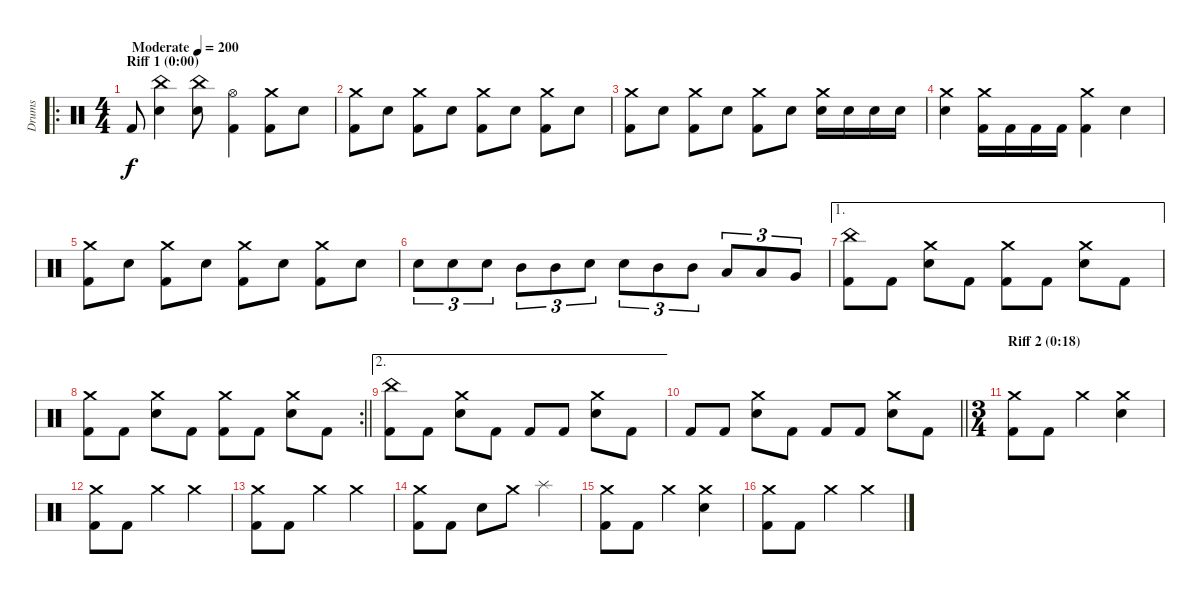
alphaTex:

\track ("Drums" "Drums") {instrument percussion}
\staff {score}
\articulation defaults
\ro
\ts (4 4)
\section ("" "Riff 1 (0:00)")
\tempo (200 "Moderate")
\clef neutral
\ks c "Kick (hit) 2".8{dy f}
("China (hit)" "Electric Snare (hit)").4 ("China (hit)" "Electric Snare (hit)").8 ("Hi-Hat (open)" "Kick (hit) 2").4 ("Crash medium (hit)" "Kick (hit) 2").8 "Electric Snare (hit)".8 |
("Crash medium (hit)" "Kick (hit) 2").8 "Electric Snare (hit)".8 ("Crash medium (hit)" "Kick (hit) 2").8 "Electric Snare (hit)".8 ("Crash medium (hit)" "Kick (hit) 2").8 "Electric Snare (hit)".8 ("Crash medium (hit)" "Kick (hit) 2").8 "Electric Snare (hit)".8 |
("Crash medium (hit)" "Kick (hit) 2").8 "Electric Snare (hit)".8 ("Crash medium (hit)" "Kick (hit) 2").8 "Electric Snare (hit)".8 ("Crash medium (hit)" "Kick (hit) 2").8 "Electric Snare (hit)".8 ("Crash medium (hit)" "Electric Snare (hit)").16 "Electric Snare (hit)".16 "Electric Snare (hit)".16 "Electric Snare (hit)".16 |
("Crash medium (hit)" "Electric Snare (hit)").4 ("Crash medium (hit)" "Kick (hit) 2").16 "Kick (hit) 2".16 "Kick (hit) 2".16 "Kick (hit) 2".16 ("Crash medium (hit)" "Kick (hit) 2").4 "Electric Snare (hit)".4 |
("Crash medium (hit)" "Kick (hit) 2").8 "Electric Snare (hit)".8 ("Crash medium (hit)" "Kick (hit) 2").8 "Electric Snare (hit)".8 ("Crash medium (hit)" "Kick (hit) 2").8 "Electric Snare (hit)".8 ("Crash medium (hit)" "Kick (hit) 2").8 "Electric Snare (hit)".8 |
"Electric Snare (hit)".8{tu (3 2)} "Electric Snare (hit)".8{tu (3 2)} "Electric Snare (hit)".8{tu (3 2)} "Mid Tom (hit)".8{tu (3 2)} "Mid Tom (hit)".8{tu (3 2)} "Electric Snare (hit)".8{tu (3 2)} "Electric Snare (hit)".8{tu (3 2)} "Mid Tom (hit)".8{tu (3 2)} "Mid Tom (hit)".8{tu (3 2)} "Low Tom (hit)".8{tu (3 2)} "Low Tom (hit)".8{tu (3 2)} "Very Low Tom (hit)".8{tu (3 2)} |
\ae 1
("China (hit)" "Kick (hit) 2").8 "Kick (hit) 2".8 ("Crash medium (hit)" "Electric Snare (hit)").8 "Kick (hit) 2".8 ("Crash medium (hit)" "Kick (hit) 2").8 "Kick (hit) 2".8 ("Crash medium (hit)" "Electric Snare (hit)").8 "Kick (hit) 2".8 |
\rc 2
\barLineRight lightlight
("Crash medium (hit)" "Kick (hit) 2").8 "Kick (hit) 2".8 ("Crash medium (hit)" "Electric Snare (hit)").8 "Kick (hit) 2".8 ("Crash medium (hit)" "Kick (hit) 2").8 "Kick (hit) 2".8 ("Crash medium (hit)" "Electric Snare (hit)").8 "Kick (hit) 2".8 |
\ae 2
("China (hit)" "Kick (hit) 2").8 "Kick (hit) 2".8 ("Crash medium (hit)" "Electric Snare (hit)").8 "Kick (hit) 2".8 "Kick (hit) 2".8 "Kick (hit) 2".8 ("Crash medium (hit)" "Electric Snare (hit)").8 "Kick (hit) 2".8 |
\barLineRight lightlight "Kick (hit) 2".8 "Kick (hit) 2".8
("Crash medium (hit)" "Electric Snare (hit)").8 "Kick (hit) 2".8 "Kick (hit) 2".8 "Kick (hit) 2".8 ("Crash medium (hit)" "Electric Snare (hit)").8 "Kick (hit) 2".8 |
\ts (3 4)
\section ("" "Riff 2 (0:18)")
("Crash medium (hit)" "Kick (hit) 2").8 "Kick (hit) 2".8 "Crash medium (hit)".4 ("Crash medium (hit)" "Electric Snare (hit)").4 |
("Crash medium (hit)" "Kick (hit) 2").8 "Kick (hit) 2".8 "Crash medium (hit)".4 "Crash medium (hit)".4 |
("Crash medium (hit)" "Kick (hit) 2").8 "Kick (hit) 2".8 "Crash medium (hit)".4 "Crash medium (hit)".4 |
("Crash medium (hit)" "Kick (hit) 2").8 "Kick (hit) 2".8 "Electric Snare (hit)".8 "Crash medium (hit)".8 "Splash (hit)".4 |
("Crash medium (hit)" "Kick (hit) 2").8 "Kick (hit) 2".8 "Crash medium (hit)".4 ("Crash medium (hit)" "Electric Snare (hit)").4 |
("Crash medium (hit)" "Kick (hit) 2").8 "Kick (hit) 2".8 "Crash medium (hit)".4 "Crash medium (hit)".4
